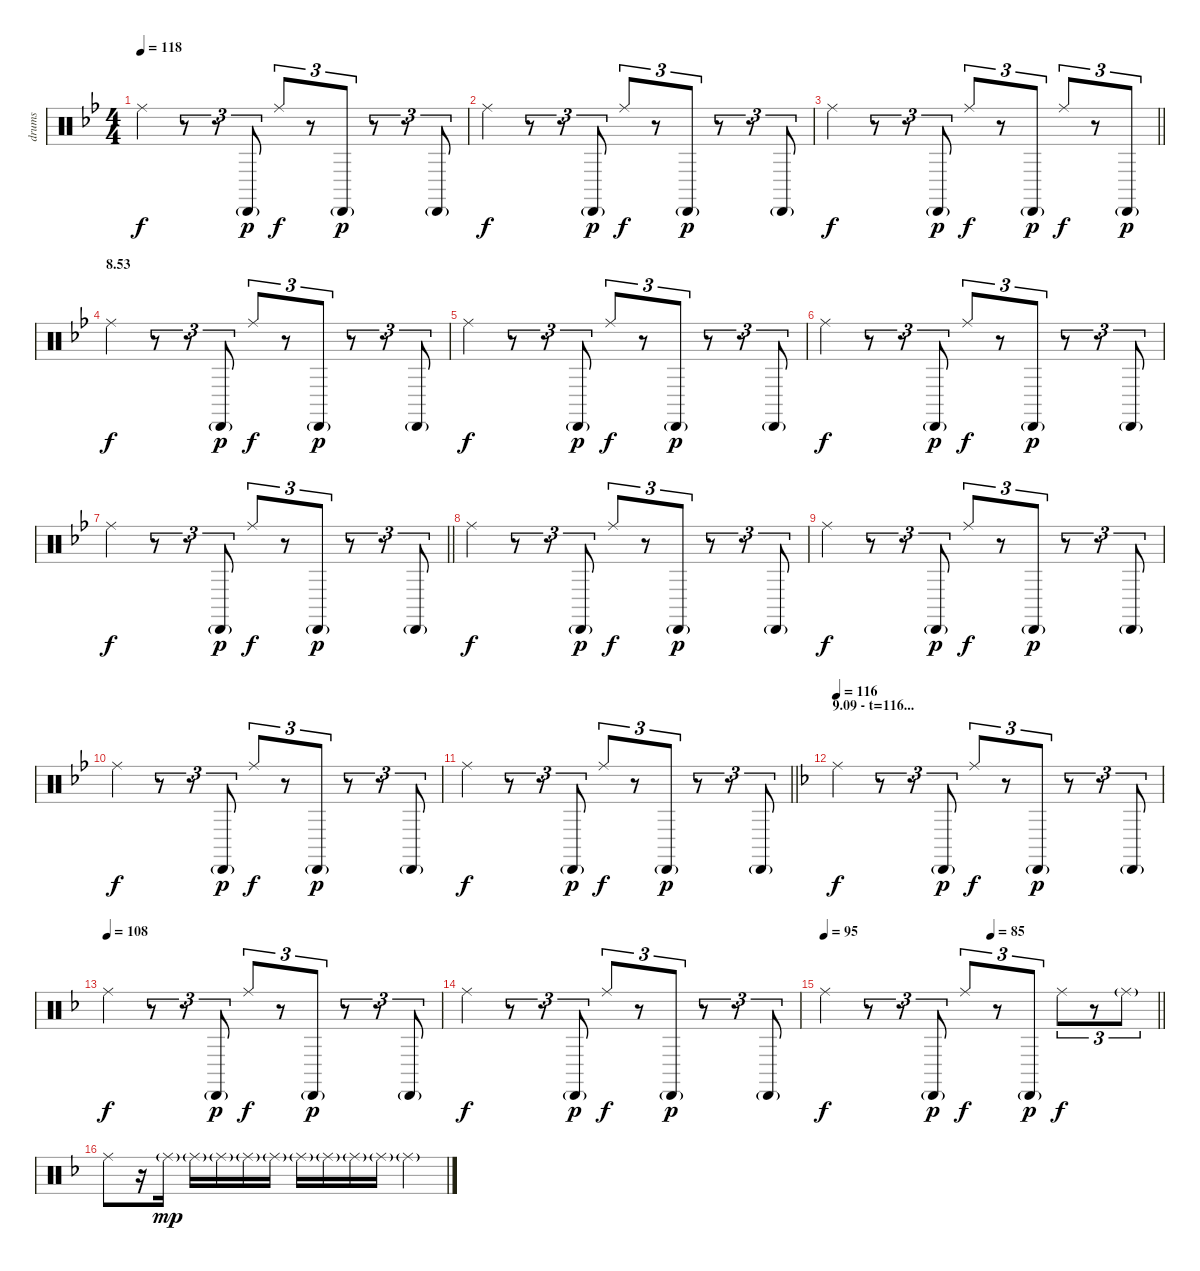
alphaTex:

\track ("drums" "drums") {instrument percussion}
\staff {score}
\articulation defaults
\ts (4 4)
\tempo 118
\clef neutral
\ks bb "Ride (middle)".4{dy f}
r.8{tu (3 2)} r.8{tu (3 2)} "Cabasa (hit)"{g}.8{tu (3 2) dy p} "Ride (middle)".8{tu (3 2) dy f} r.8{tu (3 2)} "Cabasa (hit)"{g}.8{tu (3 2) dy p} r.8{tu (3 2)} r.8{tu (3 2)} "Cabasa (hit)"{g}.8{tu (3 2)} |
"Ride (middle)".4{dy f} r.8{tu (3 2)} r.8{tu (3 2)} "Cabasa (hit)"{g}.8{tu (3 2) dy p} "Ride (middle)".8{tu (3 2) dy f} r.8{tu (3 2)} "Cabasa (hit)"{g}.8{tu (3 2) dy p} r.8{tu (3 2)} r.8{tu (3 2)} "Cabasa (hit)"{g}.8{tu (3 2)} |
\barLineRight lightlight "Ride (middle)".4{dy f}
r.8{tu (3 2)} r.8{tu (3 2)} "Cabasa (hit)"{g}.8{tu (3 2) dy p} "Ride (middle)".8{tu (3 2) dy f} r.8{tu (3 2)} "Cabasa (hit)"{g}.8{tu (3 2) dy p} "Ride (middle)".8{tu (3 2) dy f} r.8{tu (3 2)} "Cabasa (hit)"{g}.8{tu (3 2) dy p} |
\section ("" "8.53")
"Ride (middle)".4{dy f} r.8{tu (3 2)} r.8{tu (3 2)} "Cabasa (hit)"{g}.8{tu (3 2) dy p} "Ride (middle)".8{tu (3 2) dy f} r.8{tu (3 2)} "Cabasa (hit)"{g}.8{tu (3 2) dy p} r.8{tu (3 2)} r.8{tu (3 2)} "Cabasa (hit)"{g}.8{tu (3 2)} |
"Ride (middle)".4{dy f} r.8{tu (3 2)} r.8{tu (3 2)} "Cabasa (hit)"{g}.8{tu (3 2) dy p} "Ride (middle)".8{tu (3 2) dy f} r.8{tu (3 2)} "Cabasa (hit)"{g}.8{tu (3 2) dy p} r.8{tu (3 2)} r.8{tu (3 2)} "Cabasa (hit)"{g}.8{tu (3 2)} |
"Ride (middle)".4{dy f} r.8{tu (3 2)} r.8{tu (3 2)} "Cabasa (hit)"{g}.8{tu (3 2) dy p} "Ride (middle)".8{tu (3 2) dy f} r.8{tu (3 2)} "Cabasa (hit)"{g}.8{tu (3 2) dy p} r.8{tu (3 2)} r.8{tu (3 2)} "Cabasa (hit)"{g}.8{tu (3 2)} |
\barLineRight lightlight "Ride (middle)".4{dy f}
r.8{tu (3 2)} r.8{tu (3 2)} "Cabasa (hit)"{g}.8{tu (3 2) dy p} "Ride (middle)".8{tu (3 2) dy f} r.8{tu (3 2)} "Cabasa (hit)"{g}.8{tu (3 2) dy p} r.8{tu (3 2)} r.8{tu (3 2)} "Cabasa (hit)"{g}.8{tu (3 2)} |
"Ride (middle)".4{dy f} r.8{tu (3 2)} r.8{tu (3 2)} "Cabasa (hit)"{g}.8{tu (3 2) dy p} "Ride (middle)".8{tu (3 2) dy f} r.8{tu (3 2)} "Cabasa (hit)"{g}.8{tu (3 2) dy p} r.8{tu (3 2)} r.8{tu (3 2)} "Cabasa (hit)"{g}.8{tu (3 2)} |
"Ride (middle)".4{dy f} r.8{tu (3 2)} r.8{tu (3 2)} "Cabasa (hit)"{g}.8{tu (3 2) dy p} "Ride (middle)".8{tu (3 2) dy f} r.8{tu (3 2)} "Cabasa (hit)"{g}.8{tu (3 2) dy p} r.8{tu (3 2)} r.8{tu (3 2)} "Cabasa (hit)"{g}.8{tu (3 2)} |
"Ride (middle)".4{dy f} r.8{tu (3 2)} r.8{tu (3 2)} "Cabasa (hit)"{g}.8{tu (3 2) dy p} "Ride (middle)".8{tu (3 2) dy f} r.8{tu (3 2)} "Cabasa (hit)"{g}.8{tu (3 2) dy p} r.8{tu (3 2)} r.8{tu (3 2)} "Cabasa (hit)"{g}.8{tu (3 2)} |
\barLineRight lightlight "Ride (middle)".4{dy f}
r.8{tu (3 2)} r.8{tu (3 2)} "Cabasa (hit)"{g}.8{tu (3 2) dy p} "Ride (middle)".8{tu (3 2) dy f} r.8{tu (3 2)} "Cabasa (hit)"{g}.8{tu (3 2) dy p} r.8{tu (3 2)} r.8{tu (3 2)} "Cabasa (hit)"{g}.8{tu (3 2)} |
\section ("" "9.09 - t=116...")
\tempo 116
\ks f "Ride (middle)".4{dy f}
r.8{tu (3 2)} r.8{tu (3 2)} "Cabasa (hit)"{g}.8{tu (3 2) dy p} "Ride (middle)".8{tu (3 2) dy f} r.8{tu (3 2)} "Cabasa (hit)"{g}.8{tu (3 2) dy p} r.8{tu (3 2)} r.8{tu (3 2)} "Cabasa (hit)"{g}.8{tu (3 2)} |
\tempo (108)
"Ride (middle)".4{dy f} r.8{tu (3 2)} r.8{tu (3 2)} "Cabasa (hit)"{g}.8{tu (3 2) dy p} "Ride (middle)".8{tu (3 2) dy f} r.8{tu (3 2)} "Cabasa (hit)"{g}.8{tu (3 2) dy p} r.8{tu (3 2)} r.8{tu (3 2)} "Cabasa (hit)"{g}.8{tu (3 2)} |
"Ride (middle)".4{dy f} r.8{tu (3 2)} r.8{tu (3 2)} "Cabasa (hit)"{g}.8{tu (3 2) dy p} "Ride (middle)".8{tu (3 2) dy f} r.8{tu (3 2)} "Cabasa (hit)"{g}.8{tu (3 2) dy p} r.8{tu (3 2)} r.8{tu (3 2)} "Cabasa (hit)"{g}.8{tu (3 2)} |
\tempo 95
\tempo (85 0.5)
\barLineRight lightlight "Ride (middle)".4{dy f}
r.8{tu (3 2)} r.8{tu (3 2)} "Cabasa (hit)"{g}.8{tu (3 2) dy p} "Ride (middle)".8{tu (3 2) dy f} r.8{tu (3 2)} "Cabasa (hit)"{g}.8{tu (3 2) dy p} "Ride (middle)".8{tu (3 2) dy f} r.8{tu (3 2)} "Ride (middle)"{g}.8{tu (3 2)} |
"Ride (middle)".8 r.16 "Ride (middle)"{g}.16{dy mp} "Ride (middle)"{g}.16 "Ride (middle)"{g}.16 "Ride (middle)"{g}.16 "Ride (middle)"{g}.16 "Ride (middle)"{g}.16 "Ride (middle)"{g}.16 "Ride (middle)"{g}.16 "Ride (middle)"{g}.16 "Ride (middle)"{g}.4
